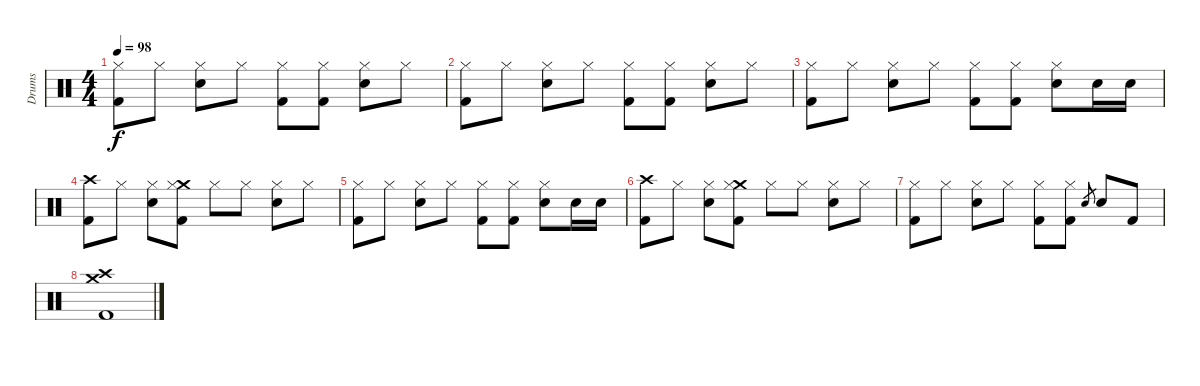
\track ("Drums" "Drums") {instrument percussion}
\staff {score}
\articulation defaults
\ts (4 4)
\tempo 98
\clef neutral
\ks c
("Hi-Hat (closed)" "Kick (hit) 2").8{dy f} "Hi-Hat (closed)".8 ("Hi-Hat (closed)" "Snare (hit) 2").8 "Hi-Hat (closed)".8 ("Hi-Hat (closed)" "Kick (hit) 2").8 ("Hi-Hat (closed)" "Kick (hit) 2").8 ("Hi-Hat (closed)" "Snare (hit) 2").8 "Hi-Hat (closed)".8 |
("Hi-Hat (closed)" "Kick (hit) 2").8 "Hi-Hat (closed)".8 ("Hi-Hat (closed)" "Snare (hit) 2").8 "Hi-Hat (closed)".8 ("Hi-Hat (closed)" "Kick (hit) 2").8 ("Hi-Hat (closed)" "Kick (hit) 2").8 ("Hi-Hat (closed)" "Snare (hit) 2").8 "Hi-Hat (closed)".8 |
("Hi-Hat (closed)" "Kick (hit) 2").8 "Hi-Hat (closed)".8 ("Hi-Hat (closed)" "Snare (hit) 2").8 "Hi-Hat (closed)".8 ("Hi-Hat (closed)" "Kick (hit) 2").8 ("Hi-Hat (closed)" "Kick (hit) 2").8 ("Hi-Hat (closed)" "Snare (hit) 2").8 "Snare (hit) 2".16 "Snare (hit) 2".16 |
("Crash high (hit)" "Kick (hit) 2").8 "Hi-Hat (closed)".8 ("Hi-Hat (closed)" "Snare (hit) 2").8 ("Crash medium (hit)" "Hi-Hat (closed)" "Kick (hit) 2").8 "Hi-Hat (closed)".8 "Hi-Hat (closed)".8 ("Hi-Hat (closed)" "Snare (hit) 2").8 "Hi-Hat (closed)".8 |
("Hi-Hat (closed)" "Kick (hit) 2").8 "Hi-Hat (closed)".8 ("Hi-Hat (closed)" "Snare (hit) 2").8 "Hi-Hat (closed)".8 ("Hi-Hat (closed)" "Kick (hit) 2").8 ("Hi-Hat (closed)" "Kick (hit) 2").8 ("Hi-Hat (closed)" "Snare (hit) 2").8 "Snare (hit) 2".16 "Snare (hit) 2".16 |
("Crash high (hit)" "Kick (hit) 2").8 "Hi-Hat (closed)".8 ("Hi-Hat (closed)" "Snare (hit) 2").8 ("Crash medium (hit)" "Hi-Hat (closed)" "Kick (hit) 2").8 "Hi-Hat (closed)".8 "Hi-Hat (closed)".8 ("Hi-Hat (closed)" "Snare (hit) 2").8 "Hi-Hat (closed)".8 |
("Hi-Hat (closed)" "Kick (hit) 2").8 "Hi-Hat (closed)".8 ("Hi-Hat (closed)" "Snare (hit) 2").8 "Hi-Hat (closed)".8 ("Hi-Hat (closed)" "Kick (hit) 2").8 ("Hi-Hat (closed)" "Kick (hit) 2").8 "Snare (hit) 2".8{gr} "Snare (hit) 2".8 "Kick (hit) 2".8 |
("Crash medium (hit)" "Crash high (hit)" "Kick (hit) 2").1
